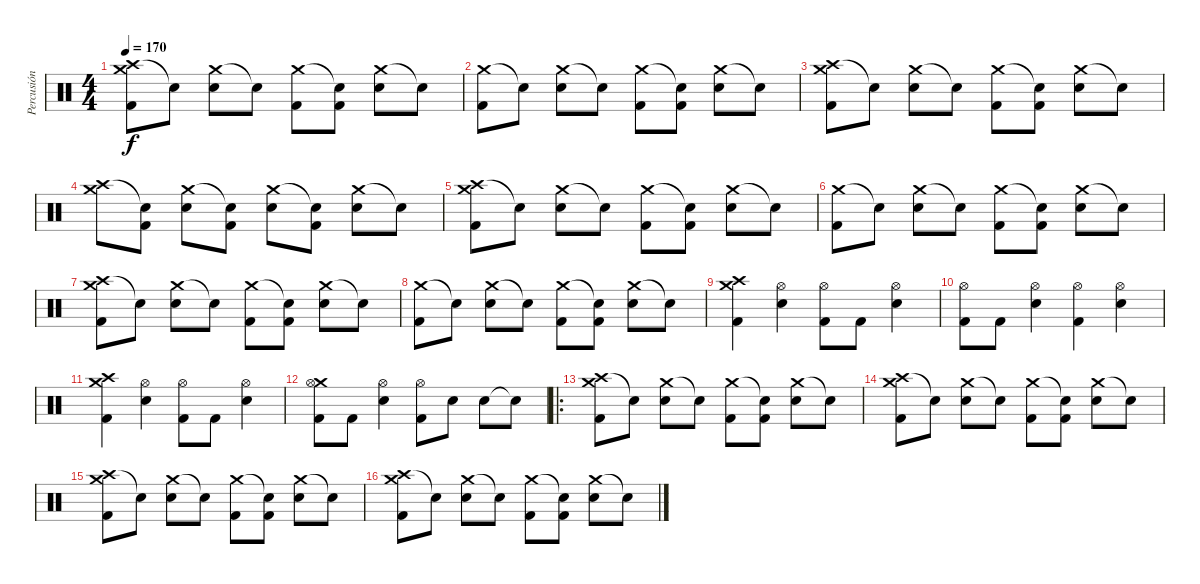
\track ("Percusión" "Percusión") {instrument percussion}
\staff {score}
\articulation defaults
\ts (4 4)
\tempo 170
\clef neutral
\ks c
("Crash high (hit)" "Crash medium (hit)" "Kick (hit) 2").8{dy f} "Snare (hit)"{t}.8 ("Crash medium (hit)" "Electric Snare (hit)").8 "Snare (hit)"{t}.8 ("Crash medium (hit)" "Kick (hit) 2").8 ("Snare (hit)"{t} "Kick (hit) 2").8 ("Crash medium (hit)" "Electric Snare (hit)").8 "Snare (hit)"{t}.8 |
("Crash medium (hit)" "Kick (hit) 2").8 "Snare (hit)"{t}.8 ("Crash medium (hit)" "Electric Snare (hit)").8 "Snare (hit)"{t}.8 ("Crash medium (hit)" "Kick (hit) 2").8 ("Snare (hit)"{t} "Kick (hit) 2").8 ("Crash medium (hit)" "Electric Snare (hit)").8 "Snare (hit)"{t}.8 |
("Crash high (hit)" "Crash medium (hit)" "Kick (hit) 2").8 "Snare (hit)"{t}.8 ("Crash medium (hit)" "Electric Snare (hit)").8 "Snare (hit)"{t}.8 ("Crash medium (hit)" "Kick (hit) 2").8 ("Snare (hit)"{t} "Kick (hit) 2").8 ("Crash medium (hit)" "Electric Snare (hit)").8 "Snare (hit)"{t}.8 |
("Crash high (hit)" "Crash medium (hit)").8 ("Snare (hit)"{t} "Kick (hit) 2").8 ("Crash medium (hit)" "Electric Snare (hit)").8 ("Snare (hit)"{t} "Kick (hit) 2").8 ("Crash medium (hit)" "Electric Snare (hit)").8 ("Snare (hit)"{t} "Kick (hit) 2").8 ("Crash medium (hit)" "Electric Snare (hit)").8 "Snare (hit)"{t}.8 |
("Crash high (hit)" "Crash medium (hit)" "Kick (hit) 2").8 "Snare (hit)"{t}.8 ("Crash medium (hit)" "Snare (hit) 2").8 "Snare (hit)"{t}.8 ("Crash medium (hit)" "Kick (hit) 2").8 ("Snare (hit)"{t} "Kick (hit) 2").8 ("Crash medium (hit)" "Electric Snare (hit)").8 "Snare (hit)"{t}.8 |
("Crash medium (hit)" "Kick (hit) 2").8 "Snare (hit)"{t}.8 ("Crash medium (hit)" "Electric Snare (hit)").8 "Snare (hit)"{t}.8 ("Crash medium (hit)" "Kick (hit) 2").8 ("Snare (hit)"{t} "Kick (hit) 2").8 ("Crash medium (hit)" "Electric Snare (hit)").8 "Snare (hit)"{t}.8 |
("Crash high (hit)" "Crash medium (hit)" "Kick (hit) 2").8 "Snare (hit)"{t}.8 ("Crash medium (hit)" "Electric Snare (hit)").8 "Snare (hit)"{t}.8 ("Crash medium (hit)" "Kick (hit) 2").8 ("Snare (hit)"{t} "Kick (hit) 2").8 ("Crash medium (hit)" "Electric Snare (hit)").8 "Snare (hit)"{t}.8 |
("Crash medium (hit)" "Kick (hit) 2").8 "Snare (hit)"{t}.8 ("Crash medium (hit)" "Electric Snare (hit)").8 "Snare (hit)"{t}.8 ("Crash medium (hit)" "Kick (hit) 2").8 ("Snare (hit)"{t} "Kick (hit) 2").8 ("Crash medium (hit)" "Electric Snare (hit)").8 "Snare (hit)"{t}.8 |
("Crash medium (hit)" "Crash high (hit)" "Kick (hit) 2").4 ("Hi-Hat (open)" "Electric Snare (hit)").4 ("Hi-Hat (open)" "Kick (hit) 2").8 "Kick (hit) 2".8 ("Hi-Hat (open)" "Electric Snare (hit)").4 |
("Hi-Hat (open)" "Kick (hit) 2").8 "Kick (hit) 2".8 ("Hi-Hat (open)" "Electric Snare (hit)").4 ("Hi-Hat (open)" "Kick (hit) 2").4 ("Hi-Hat (open)" "Electric Snare (hit)").4 |
("Crash medium (hit)" "Crash high (hit)" "Kick (hit) 2").4 ("Hi-Hat (open)" "Electric Snare (hit)").4 ("Hi-Hat (open)" "Kick (hit) 2").8 "Kick (hit) 2".8 ("Hi-Hat (open)" "Electric Snare (hit)").4 |
("Crash medium (hit)" "Hi-Hat (open)" "Kick (hit) 2").8 "Kick (hit) 2".8 ("Hi-Hat (open)" "Electric Snare (hit)").4 ("Hi-Hat (open)" "Kick (hit) 2").8 "Electric Snare (hit)".8 "Electric Snare (hit)".8 "Snare (hit)"{t}.8 |
\ro
("Crash high (hit)" "Crash medium (hit)" "Kick (hit) 2").8 "Snare (hit)"{t}.8 ("Crash medium (hit)" "Snare (hit) 2").8 "Snare (hit)"{t}.8 ("Crash medium (hit)" "Kick (hit) 2").8 ("Snare (hit)"{t} "Kick (hit) 2").8 ("Crash medium (hit)" "Electric Snare (hit)").8 "Snare (hit)"{t}.8 |
("Crash high (hit)" "Crash medium (hit)" "Kick (hit) 2").8 "Snare (hit)"{t}.8 ("Crash medium (hit)" "Electric Snare (hit)").8 "Snare (hit)"{t}.8 ("Crash medium (hit)" "Kick (hit) 2").8 ("Snare (hit)"{t} "Kick (hit) 2").8 ("Crash medium (hit)" "Electric Snare (hit)").8 "Snare (hit)"{t}.8 |
("Crash high (hit)" "Crash medium (hit)" "Kick (hit) 2").8 "Snare (hit)"{t}.8 ("Crash medium (hit)" "Snare (hit) 2").8 "Snare (hit)"{t}.8 ("Crash medium (hit)" "Kick (hit) 2").8 ("Snare (hit)"{t} "Kick (hit) 2").8 ("Crash medium (hit)" "Electric Snare (hit)").8 "Snare (hit)"{t}.8 |
("Crash high (hit)" "Crash medium (hit)" "Kick (hit) 2").8 "Snare (hit)"{t}.8 ("Crash medium (hit)" "Electric Snare (hit)").8 "Snare (hit)"{t}.8 ("Crash medium (hit)" "Kick (hit) 2").8 ("Snare (hit)"{t} "Kick (hit) 2").8 ("Crash medium (hit)" "Electric Snare (hit)").8 "Snare (hit)"{t}.8
